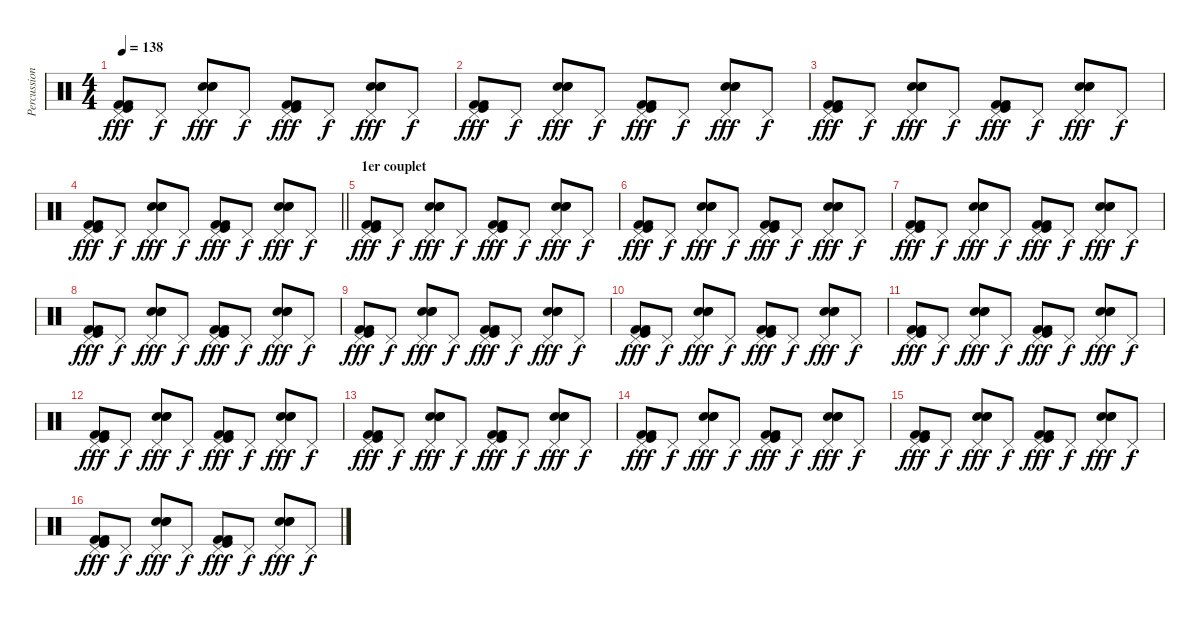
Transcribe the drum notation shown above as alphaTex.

\track ("Percussion" "Percussion") {instrument percussion}
\staff {score}
\articulation defaults
\ts (4 4)
\tempo 138
\clef neutral
\ks c
("Pedal Hi-Hat (hit)" "Kick (hit) 2" "Kick (hit)" "Kick (hit) 2").8{dy fff} "Pedal Hi-Hat (hit)".8{dy f} ("Pedal Hi-Hat (hit)" "Electric Snare (hit)" "Snare (hit) 2" "Electric Snare (hit)").8{dy fff} "Pedal Hi-Hat (hit)".8{dy f} ("Pedal Hi-Hat (hit)" "Kick (hit) 2" "Kick (hit)" "Kick (hit) 2").8{dy fff} "Pedal Hi-Hat (hit)".8{dy f} ("Pedal Hi-Hat (hit)" "Electric Snare (hit)" "Snare (hit) 2" "Electric Snare (hit)").8{dy fff} "Pedal Hi-Hat (hit)".8{dy f} |
("Pedal Hi-Hat (hit)" "Kick (hit) 2" "Kick (hit)" "Kick (hit) 2").8{dy fff} "Pedal Hi-Hat (hit)".8{dy f} ("Pedal Hi-Hat (hit)" "Electric Snare (hit)" "Snare (hit) 2" "Electric Snare (hit)").8{dy fff} "Pedal Hi-Hat (hit)".8{dy f} ("Pedal Hi-Hat (hit)" "Kick (hit) 2" "Kick (hit)" "Kick (hit) 2").8{dy fff} "Pedal Hi-Hat (hit)".8{dy f} ("Pedal Hi-Hat (hit)" "Electric Snare (hit)" "Snare (hit) 2" "Electric Snare (hit)").8{dy fff} "Pedal Hi-Hat (hit)".8{dy f} |
("Pedal Hi-Hat (hit)" "Kick (hit) 2" "Kick (hit)" "Kick (hit) 2").8{dy fff} "Pedal Hi-Hat (hit)".8{dy f} ("Pedal Hi-Hat (hit)" "Electric Snare (hit)" "Snare (hit) 2" "Electric Snare (hit)").8{dy fff} "Pedal Hi-Hat (hit)".8{dy f} ("Pedal Hi-Hat (hit)" "Kick (hit) 2" "Kick (hit)" "Kick (hit) 2").8{dy fff} "Pedal Hi-Hat (hit)".8{dy f} ("Pedal Hi-Hat (hit)" "Electric Snare (hit)" "Snare (hit) 2" "Electric Snare (hit)").8{dy fff} "Pedal Hi-Hat (hit)".8{dy f} |
\barLineRight lightlight
("Pedal Hi-Hat (hit)" "Kick (hit) 2" "Kick (hit)" "Kick (hit) 2").8{dy fff} "Pedal Hi-Hat (hit)".8{dy f} ("Pedal Hi-Hat (hit)" "Electric Snare (hit)" "Snare (hit) 2" "Electric Snare (hit)").8{dy fff} "Pedal Hi-Hat (hit)".8{dy f} ("Pedal Hi-Hat (hit)" "Kick (hit) 2" "Kick (hit)" "Kick (hit) 2").8{dy fff} "Pedal Hi-Hat (hit)".8{dy f} ("Pedal Hi-Hat (hit)" "Electric Snare (hit)" "Snare (hit) 2" "Electric Snare (hit)").8{dy fff} "Pedal Hi-Hat (hit)".8{dy f} |
\section ("" "1er couplet")
("Pedal Hi-Hat (hit)" "Kick (hit) 2" "Kick (hit)" "Kick (hit) 2").8{dy fff} "Pedal Hi-Hat (hit)".8{dy f} ("Pedal Hi-Hat (hit)" "Electric Snare (hit)" "Snare (hit) 2" "Electric Snare (hit)").8{dy fff} "Pedal Hi-Hat (hit)".8{dy f} ("Pedal Hi-Hat (hit)" "Kick (hit) 2" "Kick (hit)" "Kick (hit) 2").8{dy fff} "Pedal Hi-Hat (hit)".8{dy f} ("Pedal Hi-Hat (hit)" "Electric Snare (hit)" "Snare (hit) 2" "Electric Snare (hit)").8{dy fff} "Pedal Hi-Hat (hit)".8{dy f} |
("Pedal Hi-Hat (hit)" "Kick (hit) 2" "Kick (hit)" "Kick (hit) 2").8{dy fff} "Pedal Hi-Hat (hit)".8{dy f} ("Pedal Hi-Hat (hit)" "Electric Snare (hit)" "Snare (hit) 2" "Electric Snare (hit)").8{dy fff} "Pedal Hi-Hat (hit)".8{dy f} ("Pedal Hi-Hat (hit)" "Kick (hit) 2" "Kick (hit)" "Kick (hit) 2").8{dy fff} "Pedal Hi-Hat (hit)".8{dy f} ("Pedal Hi-Hat (hit)" "Electric Snare (hit)" "Snare (hit) 2" "Electric Snare (hit)").8{dy fff} "Pedal Hi-Hat (hit)".8{dy f} |
("Pedal Hi-Hat (hit)" "Kick (hit) 2" "Kick (hit)" "Kick (hit) 2").8{dy fff} "Pedal Hi-Hat (hit)".8{dy f} ("Pedal Hi-Hat (hit)" "Electric Snare (hit)" "Snare (hit) 2" "Electric Snare (hit)").8{dy fff} "Pedal Hi-Hat (hit)".8{dy f} ("Pedal Hi-Hat (hit)" "Kick (hit) 2" "Kick (hit)" "Kick (hit) 2").8{dy fff} "Pedal Hi-Hat (hit)".8{dy f} ("Pedal Hi-Hat (hit)" "Electric Snare (hit)" "Snare (hit) 2" "Electric Snare (hit)").8{dy fff} "Pedal Hi-Hat (hit)".8{dy f} |
("Pedal Hi-Hat (hit)" "Kick (hit) 2" "Kick (hit)" "Kick (hit) 2").8{dy fff} "Pedal Hi-Hat (hit)".8{dy f} ("Pedal Hi-Hat (hit)" "Electric Snare (hit)" "Snare (hit) 2" "Electric Snare (hit)").8{dy fff} "Pedal Hi-Hat (hit)".8{dy f} ("Pedal Hi-Hat (hit)" "Kick (hit) 2" "Kick (hit)" "Kick (hit) 2").8{dy fff} "Pedal Hi-Hat (hit)".8{dy f} ("Pedal Hi-Hat (hit)" "Electric Snare (hit)" "Snare (hit) 2" "Electric Snare (hit)").8{dy fff} "Pedal Hi-Hat (hit)".8{dy f} |
("Pedal Hi-Hat (hit)" "Kick (hit) 2" "Kick (hit)" "Kick (hit) 2").8{dy fff} "Pedal Hi-Hat (hit)".8{dy f} ("Pedal Hi-Hat (hit)" "Electric Snare (hit)" "Snare (hit) 2" "Electric Snare (hit)").8{dy fff} "Pedal Hi-Hat (hit)".8{dy f} ("Pedal Hi-Hat (hit)" "Kick (hit) 2" "Kick (hit)" "Kick (hit) 2").8{dy fff} "Pedal Hi-Hat (hit)".8{dy f} ("Pedal Hi-Hat (hit)" "Electric Snare (hit)" "Snare (hit) 2" "Electric Snare (hit)").8{dy fff} "Pedal Hi-Hat (hit)".8{dy f} |
("Pedal Hi-Hat (hit)" "Kick (hit) 2" "Kick (hit)" "Kick (hit) 2").8{dy fff} "Pedal Hi-Hat (hit)".8{dy f} ("Pedal Hi-Hat (hit)" "Electric Snare (hit)" "Snare (hit) 2" "Electric Snare (hit)").8{dy fff} "Pedal Hi-Hat (hit)".8{dy f} ("Pedal Hi-Hat (hit)" "Kick (hit) 2" "Kick (hit)" "Kick (hit) 2").8{dy fff} "Pedal Hi-Hat (hit)".8{dy f} ("Pedal Hi-Hat (hit)" "Electric Snare (hit)" "Snare (hit) 2" "Electric Snare (hit)").8{dy fff} "Pedal Hi-Hat (hit)".8{dy f} |
("Pedal Hi-Hat (hit)" "Kick (hit) 2" "Kick (hit)" "Kick (hit) 2").8{dy fff} "Pedal Hi-Hat (hit)".8{dy f} ("Pedal Hi-Hat (hit)" "Electric Snare (hit)" "Snare (hit) 2" "Electric Snare (hit)").8{dy fff} "Pedal Hi-Hat (hit)".8{dy f} ("Pedal Hi-Hat (hit)" "Kick (hit) 2" "Kick (hit)" "Kick (hit) 2").8{dy fff} "Pedal Hi-Hat (hit)".8{dy f} ("Pedal Hi-Hat (hit)" "Electric Snare (hit)" "Snare (hit) 2" "Electric Snare (hit)").8{dy fff} "Pedal Hi-Hat (hit)".8{dy f} |
("Pedal Hi-Hat (hit)" "Kick (hit) 2" "Kick (hit)" "Kick (hit) 2").8{dy fff} "Pedal Hi-Hat (hit)".8{dy f} ("Pedal Hi-Hat (hit)" "Electric Snare (hit)" "Snare (hit) 2" "Electric Snare (hit)").8{dy fff} "Pedal Hi-Hat (hit)".8{dy f} ("Pedal Hi-Hat (hit)" "Kick (hit) 2" "Kick (hit)" "Kick (hit) 2").8{dy fff} "Pedal Hi-Hat (hit)".8{dy f} ("Pedal Hi-Hat (hit)" "Electric Snare (hit)" "Snare (hit) 2" "Electric Snare (hit)").8{dy fff} "Pedal Hi-Hat (hit)".8{dy f} |
("Pedal Hi-Hat (hit)" "Kick (hit) 2" "Kick (hit)" "Kick (hit) 2").8{dy fff} "Pedal Hi-Hat (hit)".8{dy f} ("Pedal Hi-Hat (hit)" "Electric Snare (hit)" "Snare (hit) 2" "Electric Snare (hit)").8{dy fff} "Pedal Hi-Hat (hit)".8{dy f} ("Pedal Hi-Hat (hit)" "Kick (hit) 2" "Kick (hit)" "Kick (hit) 2").8{dy fff} "Pedal Hi-Hat (hit)".8{dy f} ("Pedal Hi-Hat (hit)" "Electric Snare (hit)" "Snare (hit) 2" "Electric Snare (hit)").8{dy fff} "Pedal Hi-Hat (hit)".8{dy f} |
("Pedal Hi-Hat (hit)" "Kick (hit) 2" "Kick (hit)" "Kick (hit) 2").8{dy fff} "Pedal Hi-Hat (hit)".8{dy f} ("Pedal Hi-Hat (hit)" "Electric Snare (hit)" "Snare (hit) 2" "Electric Snare (hit)").8{dy fff} "Pedal Hi-Hat (hit)".8{dy f} ("Pedal Hi-Hat (hit)" "Kick (hit) 2" "Kick (hit)" "Kick (hit) 2").8{dy fff} "Pedal Hi-Hat (hit)".8{dy f} ("Pedal Hi-Hat (hit)" "Electric Snare (hit)" "Snare (hit) 2" "Electric Snare (hit)").8{dy fff} "Pedal Hi-Hat (hit)".8{dy f} |
("Pedal Hi-Hat (hit)" "Kick (hit) 2" "Kick (hit)" "Kick (hit) 2").8{dy fff} "Pedal Hi-Hat (hit)".8{dy f} ("Pedal Hi-Hat (hit)" "Electric Snare (hit)" "Snare (hit) 2" "Electric Snare (hit)").8{dy fff} "Pedal Hi-Hat (hit)".8{dy f} ("Pedal Hi-Hat (hit)" "Kick (hit) 2" "Kick (hit)" "Kick (hit) 2").8{dy fff} "Pedal Hi-Hat (hit)".8{dy f} ("Pedal Hi-Hat (hit)" "Electric Snare (hit)" "Snare (hit) 2" "Electric Snare (hit)").8{dy fff} "Pedal Hi-Hat (hit)".8{dy f} |
("Pedal Hi-Hat (hit)" "Kick (hit) 2" "Kick (hit)" "Kick (hit) 2").8{dy fff} "Pedal Hi-Hat (hit)".8{dy f} ("Pedal Hi-Hat (hit)" "Electric Snare (hit)" "Snare (hit) 2" "Electric Snare (hit)").8{dy fff} "Pedal Hi-Hat (hit)".8{dy f} ("Pedal Hi-Hat (hit)" "Kick (hit) 2" "Kick (hit)" "Kick (hit) 2").8{dy fff} "Pedal Hi-Hat (hit)".8{dy f} ("Pedal Hi-Hat (hit)" "Electric Snare (hit)" "Snare (hit) 2" "Electric Snare (hit)").8{dy fff} "Pedal Hi-Hat (hit)".8{dy f}
